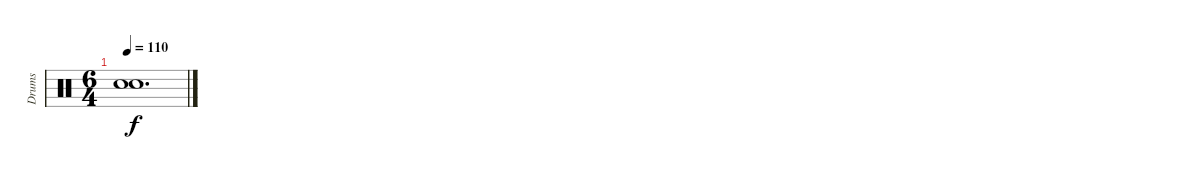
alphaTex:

\track ("Drums" "Drums") {instrument percussion}
\staff {score}
\articulation defaults
\ts (6 4)
\tempo 110
\clef neutral
\ks c
("Snare (hit)"{t} "Snare (hit)"{t}).1{d dy f}
